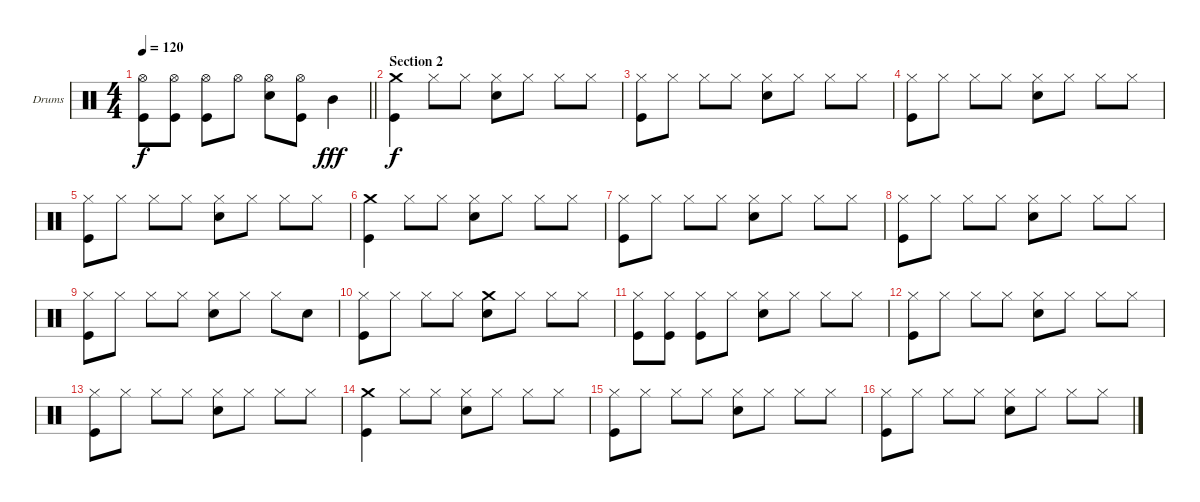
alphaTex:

\defaultSystemsLayout 4
\bracketExtendMode groupsimilarinstruments
\firstSystemTrackNameOrientation horizontal
\otherSystemsTrackNameOrientation horizontal
\track ("Drums" "Drums") {instrument percussion}
\staff {score}
\articulation defaults
\ts (4 4)
\tempo 120
\clef neutral
\barLineRight lightlight
\ks c
("Kick (hit)" "Hi-Hat (open)").8{dy f} ("Kick (hit)" "Hi-Hat (open)").8 ("Hi-Hat (open)" "Kick (hit)").8 "Hi-Hat (open)".8 ("Hi-Hat (open)" "Snare (hit) 2").8 ("Hi-Hat (open)" "Kick (hit)").8 "Mid Tom (hit)".4{dy fff} |
\section ("" "Section 2")
("Kick (hit)" "Crash medium (hit)").4{dy f} "Hi-Hat (closed)".8 "Hi-Hat (closed)".8 ("Snare (hit) 2" "Hi-Hat (closed)").8 "Hi-Hat (closed)".8 "Hi-Hat (closed)".8 "Hi-Hat (closed)".8 |
("Hi-Hat (closed)" "Kick (hit)").8 "Hi-Hat (closed)".8 "Hi-Hat (closed)".8 "Hi-Hat (closed)".8 ("Hi-Hat (closed)" "Snare (hit) 2").8 "Hi-Hat (closed)".8 "Hi-Hat (closed)".8 "Hi-Hat (closed)".8 |
("Hi-Hat (closed)" "Kick (hit)").8 "Hi-Hat (closed)".8 "Hi-Hat (closed)".8 "Hi-Hat (closed)".8 ("Hi-Hat (closed)" "Snare (hit) 2").8 "Hi-Hat (closed)".8 "Hi-Hat (closed)".8 "Hi-Hat (closed)".8 |
("Hi-Hat (closed)" "Kick (hit)").8 "Hi-Hat (closed)".8 "Hi-Hat (closed)".8 "Hi-Hat (closed)".8 ("Hi-Hat (closed)" "Snare (hit) 2").8 "Hi-Hat (closed)".8 "Hi-Hat (closed)".8 "Hi-Hat (closed)".8 |
("Kick (hit)" "Crash medium (hit)").4 "Hi-Hat (closed)".8 "Hi-Hat (closed)".8 ("Hi-Hat (closed)" "Snare (hit) 2").8 "Hi-Hat (closed)".8 "Hi-Hat (closed)".8 "Hi-Hat (closed)".8 |
("Hi-Hat (closed)" "Kick (hit)").8 "Hi-Hat (closed)".8 "Hi-Hat (closed)".8 "Hi-Hat (closed)".8 ("Hi-Hat (closed)" "Snare (hit) 2").8 "Hi-Hat (closed)".8 "Hi-Hat (closed)".8 "Hi-Hat (closed)".8 |
("Hi-Hat (closed)" "Kick (hit)").8 "Hi-Hat (closed)".8 "Hi-Hat (closed)".8 "Hi-Hat (closed)".8 ("Hi-Hat (closed)" "Snare (hit) 2").8 "Hi-Hat (closed)".8 "Hi-Hat (closed)".8 "Hi-Hat (closed)".8 |
("Hi-Hat (closed)" "Kick (hit)").8 "Hi-Hat (closed)".8 "Hi-Hat (closed)".8 "Hi-Hat (closed)".8 ("Hi-Hat (closed)" "Snare (hit) 2").8 "Hi-Hat (closed)".8 "Hi-Hat (closed)".8 "Snare (hit) 2".8 |
("Hi-Hat (closed)" "Kick (hit)").8 "Hi-Hat (closed)".8 "Hi-Hat (closed)".8 "Hi-Hat (closed)".8 ("Snare (hit) 2" "Crash medium (hit)").8 "Hi-Hat (closed)".8 "Hi-Hat (closed)".8 "Hi-Hat (closed)".8 |
("Hi-Hat (closed)" "Kick (hit)").8 ("Hi-Hat (closed)" "Kick (hit)").8 ("Hi-Hat (closed)" "Kick (hit)").8 "Hi-Hat (closed)".8 ("Snare (hit) 2" "Hi-Hat (closed)").8 "Hi-Hat (closed)".8 "Hi-Hat (closed)".8 "Hi-Hat (closed)".8 |
("Hi-Hat (closed)" "Kick (hit)").8 "Hi-Hat (closed)".8 "Hi-Hat (closed)".8 "Hi-Hat (closed)".8 ("Hi-Hat (closed)" "Snare (hit) 2").8 "Hi-Hat (closed)".8 "Hi-Hat (closed)".8 "Hi-Hat (closed)".8 |
("Hi-Hat (closed)" "Kick (hit)").8 "Hi-Hat (closed)".8 "Hi-Hat (closed)".8 "Hi-Hat (closed)".8 ("Hi-Hat (closed)" "Snare (hit) 2").8 "Hi-Hat (closed)".8 "Hi-Hat (closed)".8 "Hi-Hat (closed)".8 |
("Kick (hit)" "Crash medium (hit)").4 "Hi-Hat (closed)".8 "Hi-Hat (closed)".8 ("Snare (hit) 2" "Hi-Hat (closed)").8 "Hi-Hat (closed)".8 "Hi-Hat (closed)".8 "Hi-Hat (closed)".8 |
("Hi-Hat (closed)" "Kick (hit)").8 "Hi-Hat (closed)".8 "Hi-Hat (closed)".8 "Hi-Hat (closed)".8 ("Hi-Hat (closed)" "Snare (hit) 2").8 "Hi-Hat (closed)".8 "Hi-Hat (closed)".8 "Hi-Hat (closed)".8 |
("Hi-Hat (closed)" "Kick (hit)").8 "Hi-Hat (closed)".8 "Hi-Hat (closed)".8 "Hi-Hat (closed)".8 ("Hi-Hat (closed)" "Snare (hit) 2").8 "Hi-Hat (closed)".8 "Hi-Hat (closed)".8 "Hi-Hat (closed)".8
